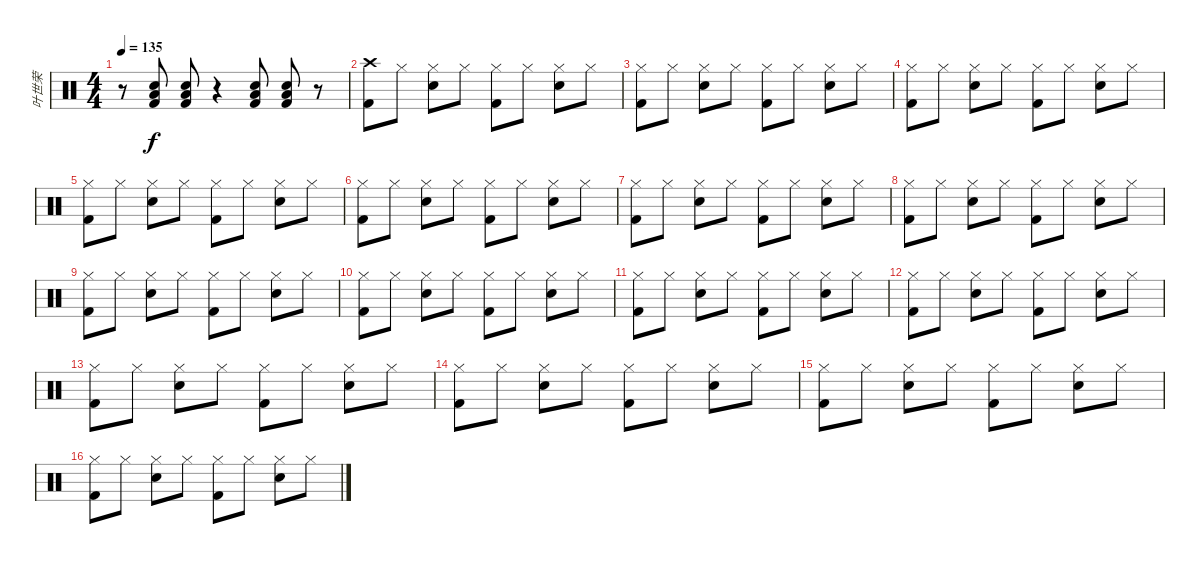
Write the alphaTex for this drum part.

\track ("叶世荣" "叶世荣") {instrument percussion}
\staff {score}
\articulation defaults
\ts (4 4)
\tempo 135
\clef neutral
\ks c
r.8{dy f} ("Low Tom (hit)" "Snare (hit) 2" "Kick (hit) 2").8 ("Low Tom (hit)" "Snare (hit) 2" "Kick (hit) 2").8 r.4 ("Low Tom (hit)" "Snare (hit) 2" "Kick (hit) 2").8 ("Low Tom (hit)" "Snare (hit) 2" "Kick (hit) 2").8 r.8 |
("Crash high (hit)" "Kick (hit) 2").8 "Hi-Hat (closed)".8 ("Hi-Hat (closed)" "Electric Snare (hit)").8 "Hi-Hat (closed)".8 ("Hi-Hat (closed)" "Kick (hit) 2").8 "Hi-Hat (closed)".8 ("Hi-Hat (closed)" "Electric Snare (hit)").8 "Hi-Hat (closed)".8 |
("Hi-Hat (closed)" "Kick (hit) 2").8 "Hi-Hat (closed)".8 ("Hi-Hat (closed)" "Electric Snare (hit)").8 "Hi-Hat (closed)".8 ("Hi-Hat (closed)" "Kick (hit) 2").8 "Hi-Hat (closed)".8 ("Hi-Hat (closed)" "Electric Snare (hit)").8 "Hi-Hat (closed)".8 |
("Hi-Hat (closed)" "Kick (hit) 2").8 "Hi-Hat (closed)".8 ("Hi-Hat (closed)" "Electric Snare (hit)").8 "Hi-Hat (closed)".8 ("Hi-Hat (closed)" "Kick (hit) 2").8 "Hi-Hat (closed)".8 ("Hi-Hat (closed)" "Electric Snare (hit)").8 "Hi-Hat (closed)".8 |
("Hi-Hat (closed)" "Kick (hit) 2").8 "Hi-Hat (closed)".8 ("Hi-Hat (closed)" "Electric Snare (hit)").8 "Hi-Hat (closed)".8 ("Hi-Hat (closed)" "Kick (hit) 2").8 "Hi-Hat (closed)".8 ("Hi-Hat (closed)" "Electric Snare (hit)").8 "Hi-Hat (closed)".8 |
("Hi-Hat (closed)" "Kick (hit) 2").8 "Hi-Hat (closed)".8 ("Hi-Hat (closed)" "Electric Snare (hit)").8 "Hi-Hat (closed)".8 ("Hi-Hat (closed)" "Kick (hit) 2").8 "Hi-Hat (closed)".8 ("Hi-Hat (closed)" "Electric Snare (hit)").8 "Hi-Hat (closed)".8 |
("Hi-Hat (closed)" "Kick (hit) 2").8 "Hi-Hat (closed)".8 ("Hi-Hat (closed)" "Electric Snare (hit)").8 "Hi-Hat (closed)".8 ("Hi-Hat (closed)" "Kick (hit) 2").8 "Hi-Hat (closed)".8 ("Hi-Hat (closed)" "Electric Snare (hit)").8 "Hi-Hat (closed)".8 |
("Hi-Hat (closed)" "Kick (hit) 2").8 "Hi-Hat (closed)".8 ("Hi-Hat (closed)" "Electric Snare (hit)").8 "Hi-Hat (closed)".8 ("Hi-Hat (closed)" "Kick (hit) 2").8 "Hi-Hat (closed)".8 ("Hi-Hat (closed)" "Electric Snare (hit)").8 "Hi-Hat (closed)".8 |
("Hi-Hat (closed)" "Kick (hit) 2").8 "Hi-Hat (closed)".8 ("Hi-Hat (closed)" "Electric Snare (hit)").8 "Hi-Hat (closed)".8 ("Hi-Hat (closed)" "Kick (hit) 2").8 "Hi-Hat (closed)".8 ("Hi-Hat (closed)" "Electric Snare (hit)").8 "Hi-Hat (closed)".8 |
("Hi-Hat (closed)" "Kick (hit) 2").8 "Hi-Hat (closed)".8 ("Hi-Hat (closed)" "Electric Snare (hit)").8 "Hi-Hat (closed)".8 ("Hi-Hat (closed)" "Kick (hit) 2").8 "Hi-Hat (closed)".8 ("Hi-Hat (closed)" "Electric Snare (hit)").8 "Hi-Hat (closed)".8 |
("Hi-Hat (closed)" "Kick (hit) 2").8 "Hi-Hat (closed)".8 ("Hi-Hat (closed)" "Electric Snare (hit)").8 "Hi-Hat (closed)".8 ("Hi-Hat (closed)" "Kick (hit) 2").8 "Hi-Hat (closed)".8 ("Hi-Hat (closed)" "Electric Snare (hit)").8 "Hi-Hat (closed)".8 |
("Hi-Hat (closed)" "Kick (hit) 2").8 "Hi-Hat (closed)".8 ("Hi-Hat (closed)" "Electric Snare (hit)").8 "Hi-Hat (closed)".8 ("Hi-Hat (closed)" "Kick (hit) 2").8 "Hi-Hat (closed)".8 ("Hi-Hat (closed)" "Electric Snare (hit)").8 "Hi-Hat (closed)".8 |
("Hi-Hat (closed)" "Kick (hit) 2").8 "Hi-Hat (closed)".8 ("Hi-Hat (closed)" "Electric Snare (hit)").8 "Hi-Hat (closed)".8 ("Hi-Hat (closed)" "Kick (hit) 2").8 "Hi-Hat (closed)".8 ("Hi-Hat (closed)" "Electric Snare (hit)").8 "Hi-Hat (closed)".8 |
("Hi-Hat (closed)" "Kick (hit) 2").8 "Hi-Hat (closed)".8 ("Hi-Hat (closed)" "Electric Snare (hit)").8 "Hi-Hat (closed)".8 ("Hi-Hat (closed)" "Kick (hit) 2").8 "Hi-Hat (closed)".8 ("Hi-Hat (closed)" "Electric Snare (hit)").8 "Hi-Hat (closed)".8 |
("Hi-Hat (closed)" "Kick (hit) 2").8 "Hi-Hat (closed)".8 ("Hi-Hat (closed)" "Electric Snare (hit)").8 "Hi-Hat (closed)".8 ("Hi-Hat (closed)" "Kick (hit) 2").8 "Hi-Hat (closed)".8 ("Hi-Hat (closed)" "Electric Snare (hit)").8 "Hi-Hat (closed)".8 |
("Hi-Hat (closed)" "Kick (hit) 2").8 "Hi-Hat (closed)".8 ("Hi-Hat (closed)" "Electric Snare (hit)").8 "Hi-Hat (closed)".8 ("Hi-Hat (closed)" "Kick (hit) 2").8 "Hi-Hat (closed)".8 ("Hi-Hat (closed)" "Electric Snare (hit)").8 "Hi-Hat (closed)".8
